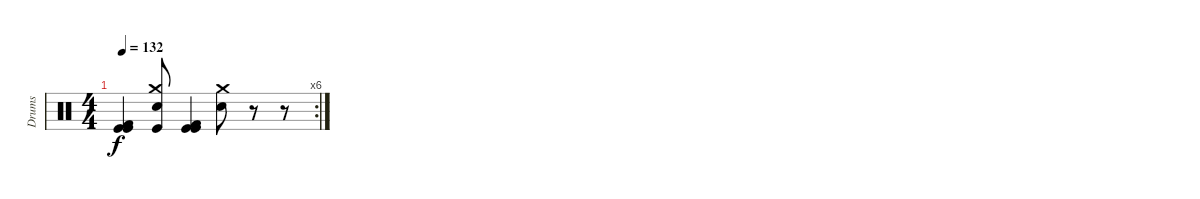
\track ("Drums" "Drums") {instrument percussion}
\staff {score}
\articulation defaults
\rc 6
\ts (4 4)
\tempo 132
\clef neutral
\ks c
("Kick (hit)" "Kick (hit) 2" "Kick (hit)").4{dy f} ("Crash medium (hit)" "Electric Snare (hit)" "Kick (hit)").8 ("Kick (hit)" "Kick (hit) 2" "Kick (hit)").4 ("Crash medium (hit)" "Electric Snare (hit)").8 r.8 r.8
